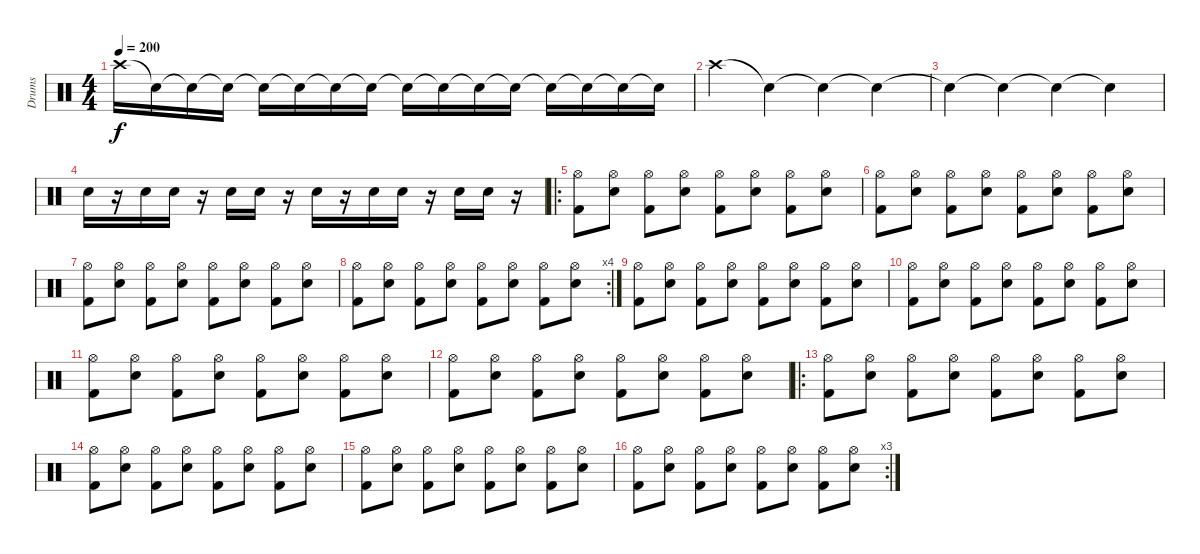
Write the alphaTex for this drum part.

\track ("Drums" "Drums") {instrument percussion}
\staff {score}
\articulation defaults
\ts (4 4)
\tempo 200
\clef neutral
\ks c "Crash high (hit)".16{dy f} "Snare (hit)"{t}.16 "Snare (hit)"{t}.16 "Snare (hit)"{t}.16 "Snare (hit)"{t}.16 "Snare (hit)"{t}.16 "Snare (hit)"{t}.16 "Snare (hit)"{t}.16 "Snare (hit)"{t}.16 "Snare (hit)"{t}.16 "Snare (hit)"{t}.16 "Snare (hit)"{t}.16 "Snare (hit)"{t}.16 "Snare (hit)"{t}.16 "Snare (hit)"{t}.16 "Snare (hit)"{t}.16
|
"Crash high (hit)".4 "Snare (hit)"{t}.4 "Snare (hit)"{t}.4 "Snare (hit)"{t}.4 |
"Snare (hit)"{t}.4 "Snare (hit)"{t}.4 "Snare (hit)"{t}.4 "Snare (hit)"{t}.4 |
"Snare (hit) 2".16 r.16 "Snare (hit) 2".16 "Snare (hit) 2".16 r.16 "Snare (hit) 2".16 "Snare (hit) 2".16 r.16 "Snare (hit) 2".16 r.16 "Snare (hit) 2".16 "Snare (hit) 2".16 r.16 "Snare (hit) 2".16 "Snare (hit) 2".16 r.16 |
\ro
("Kick (hit) 2" "Hi-Hat (open)").8 ("Snare (hit) 2" "Hi-Hat (open)").8 ("Kick (hit) 2" "Hi-Hat (open)").8 ("Snare (hit) 2" "Hi-Hat (open)").8 ("Kick (hit) 2" "Hi-Hat (open)").8 ("Snare (hit) 2" "Hi-Hat (open)").8 ("Kick (hit) 2" "Hi-Hat (open)").8 ("Snare (hit) 2" "Hi-Hat (open)").8 |
("Kick (hit) 2" "Hi-Hat (open)").8 ("Snare (hit) 2" "Hi-Hat (open)").8 ("Kick (hit) 2" "Hi-Hat (open)").8 ("Snare (hit) 2" "Hi-Hat (open)").8 ("Kick (hit) 2" "Hi-Hat (open)").8 ("Snare (hit) 2" "Hi-Hat (open)").8 ("Kick (hit) 2" "Hi-Hat (open)").8 ("Snare (hit) 2" "Hi-Hat (open)").8 |
("Kick (hit) 2" "Hi-Hat (open)").8 ("Snare (hit) 2" "Hi-Hat (open)").8 ("Kick (hit) 2" "Hi-Hat (open)").8 ("Snare (hit) 2" "Hi-Hat (open)").8 ("Kick (hit) 2" "Hi-Hat (open)").8 ("Snare (hit) 2" "Hi-Hat (open)").8 ("Kick (hit) 2" "Hi-Hat (open)").8 ("Snare (hit) 2" "Hi-Hat (open)").8 |
\rc 4
("Kick (hit) 2" "Hi-Hat (open)").8 ("Snare (hit) 2" "Hi-Hat (open)").8 ("Kick (hit) 2" "Hi-Hat (open)").8 ("Snare (hit) 2" "Hi-Hat (open)").8 ("Kick (hit) 2" "Hi-Hat (open)").8 ("Snare (hit) 2" "Hi-Hat (open)").8 ("Kick (hit) 2" "Hi-Hat (open)").8 ("Snare (hit) 2" "Hi-Hat (open)").8 |
("Kick (hit) 2" "Hi-Hat (open)").8 ("Snare (hit) 2" "Hi-Hat (open)").8 ("Kick (hit) 2" "Hi-Hat (open)").8 ("Snare (hit) 2" "Hi-Hat (open)").8 ("Kick (hit) 2" "Hi-Hat (open)").8 ("Snare (hit) 2" "Hi-Hat (open)").8 ("Kick (hit) 2" "Hi-Hat (open)").8 ("Snare (hit) 2" "Hi-Hat (open)").8 |
("Kick (hit) 2" "Hi-Hat (open)").8 ("Snare (hit) 2" "Hi-Hat (open)").8 ("Kick (hit) 2" "Hi-Hat (open)").8 ("Snare (hit) 2" "Hi-Hat (open)").8 ("Kick (hit) 2" "Hi-Hat (open)").8 ("Snare (hit) 2" "Hi-Hat (open)").8 ("Kick (hit) 2" "Hi-Hat (open)").8 ("Snare (hit) 2" "Hi-Hat (open)").8 |
("Kick (hit) 2" "Hi-Hat (open)").8 ("Snare (hit) 2" "Hi-Hat (open)").8 ("Kick (hit) 2" "Hi-Hat (open)").8 ("Snare (hit) 2" "Hi-Hat (open)").8 ("Kick (hit) 2" "Hi-Hat (open)").8 ("Snare (hit) 2" "Hi-Hat (open)").8 ("Kick (hit) 2" "Hi-Hat (open)").8 ("Snare (hit) 2" "Hi-Hat (open)").8 |
("Kick (hit) 2" "Hi-Hat (open)").8 ("Snare (hit) 2" "Hi-Hat (open)").8 ("Kick (hit) 2" "Hi-Hat (open)").8 ("Snare (hit) 2" "Hi-Hat (open)").8 ("Kick (hit) 2" "Hi-Hat (open)").8 ("Snare (hit) 2" "Hi-Hat (open)").8 ("Kick (hit) 2" "Hi-Hat (open)").8 ("Snare (hit) 2" "Hi-Hat (open)").8 |
\ro
("Kick (hit) 2" "Hi-Hat (open)").8 ("Snare (hit) 2" "Hi-Hat (open)").8 ("Kick (hit) 2" "Hi-Hat (open)").8 ("Snare (hit) 2" "Hi-Hat (open)").8 ("Kick (hit) 2" "Hi-Hat (open)").8 ("Snare (hit) 2" "Hi-Hat (open)").8 ("Kick (hit) 2" "Hi-Hat (open)").8 ("Snare (hit) 2" "Hi-Hat (open)").8 |
("Kick (hit) 2" "Hi-Hat (open)").8 ("Snare (hit) 2" "Hi-Hat (open)").8 ("Kick (hit) 2" "Hi-Hat (open)").8 ("Snare (hit) 2" "Hi-Hat (open)").8 ("Kick (hit) 2" "Hi-Hat (open)").8 ("Snare (hit) 2" "Hi-Hat (open)").8 ("Kick (hit) 2" "Hi-Hat (open)").8 ("Snare (hit) 2" "Hi-Hat (open)").8 |
("Kick (hit) 2" "Hi-Hat (open)").8 ("Snare (hit) 2" "Hi-Hat (open)").8 ("Kick (hit) 2" "Hi-Hat (open)").8 ("Snare (hit) 2" "Hi-Hat (open)").8 ("Kick (hit) 2" "Hi-Hat (open)").8 ("Snare (hit) 2" "Hi-Hat (open)").8 ("Kick (hit) 2" "Hi-Hat (open)").8 ("Snare (hit) 2" "Hi-Hat (open)").8 |
\rc 3
("Kick (hit) 2" "Hi-Hat (open)").8 ("Snare (hit) 2" "Hi-Hat (open)").8 ("Kick (hit) 2" "Hi-Hat (open)").8 ("Snare (hit) 2" "Hi-Hat (open)").8 ("Kick (hit) 2" "Hi-Hat (open)").8 ("Snare (hit) 2" "Hi-Hat (open)").8 ("Kick (hit) 2" "Hi-Hat (open)").8 ("Snare (hit) 2" "Hi-Hat (open)").8
